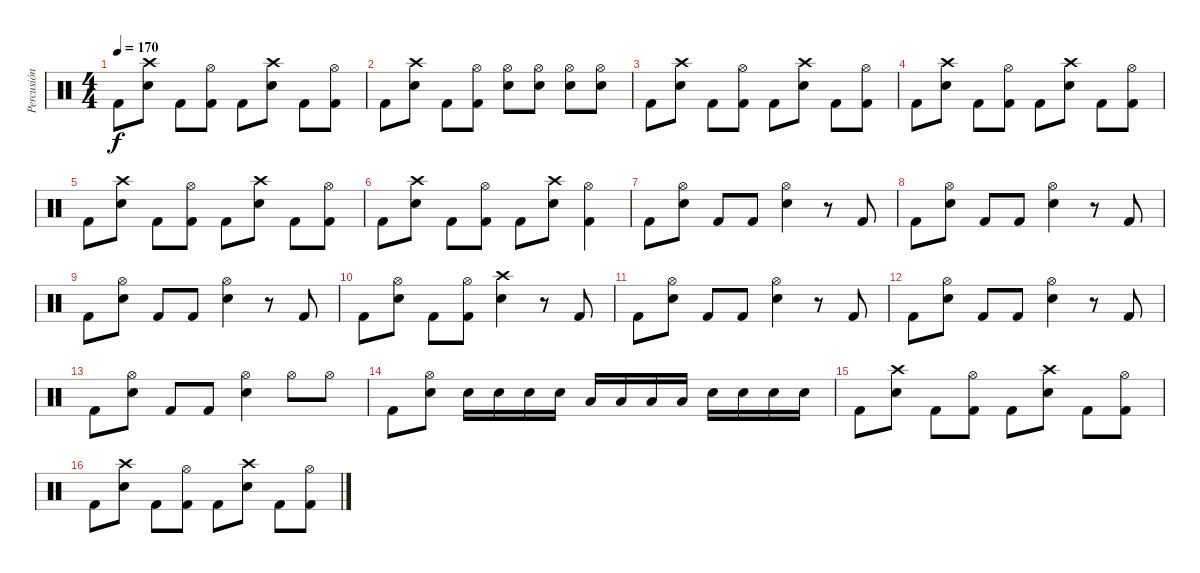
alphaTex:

\track ("Percusión" "Percusión") {instrument percussion}
\staff {score}
\articulation defaults
\ts (4 4)
\tempo 170
\clef neutral
\ks c "Kick (hit) 2".8{dy f}
("Crash high (hit)" "Electric Snare (hit)").8 "Kick (hit) 2".8 ("Hi-Hat (open)" "Kick (hit) 2").8 "Kick (hit) 2".8 ("Crash high (hit)" "Electric Snare (hit)").8 "Kick (hit) 2".8 ("Hi-Hat (open)" "Kick (hit) 2").8 |
"Kick (hit) 2".8 ("Crash high (hit)" "Electric Snare (hit)").8 "Kick (hit) 2".8 ("Hi-Hat (open)" "Kick (hit) 2").8 ("Hi-Hat (open)" "Electric Snare (hit)").8 ("Hi-Hat (open)" "Electric Snare (hit)").8 ("Hi-Hat (open)" "Electric Snare (hit)").8 ("Hi-Hat (open)" "Electric Snare (hit)").8 |
"Kick (hit) 2".8 ("Crash high (hit)" "Electric Snare (hit)").8 "Kick (hit) 2".8 ("Hi-Hat (open)" "Kick (hit) 2").8 "Kick (hit) 2".8 ("Crash high (hit)" "Electric Snare (hit)").8 "Kick (hit) 2".8 ("Hi-Hat (open)" "Kick (hit) 2").8 |
"Kick (hit) 2".8 ("Crash high (hit)" "Electric Snare (hit)").8 "Kick (hit) 2".8 ("Hi-Hat (open)" "Kick (hit) 2").8 "Kick (hit) 2".8 ("Crash high (hit)" "Electric Snare (hit)").8 "Kick (hit) 2".8 ("Hi-Hat (open)" "Kick (hit) 2").8 |
"Kick (hit) 2".8 ("Crash high (hit)" "Electric Snare (hit)").8 "Kick (hit) 2".8 ("Hi-Hat (open)" "Kick (hit) 2").8 "Kick (hit) 2".8 ("Crash high (hit)" "Electric Snare (hit)").8 "Kick (hit) 2".8 ("Hi-Hat (open)" "Kick (hit) 2").8 |
"Kick (hit) 2".8 ("Crash high (hit)" "Electric Snare (hit)").8 "Kick (hit) 2".8 ("Hi-Hat (open)" "Kick (hit) 2").8 "Kick (hit) 2".8 ("Crash high (hit)" "Electric Snare (hit)").8 ("Hi-Hat (open)" "Kick (hit) 2").4 |
"Kick (hit) 2".8 ("Hi-Hat (open)" "Electric Snare (hit)").8 "Kick (hit) 2".8 "Kick (hit) 2".8 ("Hi-Hat (open)" "Electric Snare (hit)").4 r.8 "Kick (hit) 2".8 |
"Kick (hit) 2".8 ("Hi-Hat (open)" "Electric Snare (hit)").8 "Kick (hit) 2".8 "Kick (hit) 2".8 ("Hi-Hat (open)" "Electric Snare (hit)").4 r.8 "Kick (hit) 2".8 |
"Kick (hit) 2".8 ("Hi-Hat (open)" "Electric Snare (hit)").8 "Kick (hit) 2".8 "Kick (hit) 2".8 ("Hi-Hat (open)" "Electric Snare (hit)").4 r.8 "Kick (hit) 2".8 |
"Kick (hit) 2".8 ("Hi-Hat (open)" "Electric Snare (hit)").8 "Kick (hit) 2".8 ("Hi-Hat (open)" "Kick (hit) 2").8 ("Crash high (hit)" "Electric Snare (hit)").4 r.8 "Kick (hit) 2".8 |
"Kick (hit) 2".8 ("Hi-Hat (open)" "Electric Snare (hit)").8 "Kick (hit) 2".8 "Kick (hit) 2".8 ("Hi-Hat (open)" "Electric Snare (hit)").4 r.8 "Kick (hit) 2".8 |
"Kick (hit) 2".8 ("Hi-Hat (open)" "Electric Snare (hit)").8 "Kick (hit) 2".8 "Kick (hit) 2".8 ("Hi-Hat (open)" "Electric Snare (hit)").4 r.8 "Kick (hit) 2".8 |
"Kick (hit) 2".8 ("Hi-Hat (open)" "Electric Snare (hit)").8 "Kick (hit) 2".8 "Kick (hit) 2".8 ("Hi-Hat (open)" "Electric Snare (hit)").4 "Hi-Hat (open)".8 "Hi-Hat (open)".8 |
"Kick (hit) 2".8 ("Hi-Hat (open)" "Electric Snare (hit)").8 "Electric Snare (hit)".16 "Electric Snare (hit)".16 "Electric Snare (hit)".16 "Electric Snare (hit)".16 "Low Tom (hit)".16 "Low Tom (hit)".16 "Low Tom (hit)".16 "Low Tom (hit)".16 "Electric Snare (hit)".16 "Electric Snare (hit)".16 "Electric Snare (hit)".16 "Electric Snare (hit)".16 |
"Kick (hit) 2".8 ("Crash high (hit)" "Electric Snare (hit)").8 "Kick (hit) 2".8 ("Hi-Hat (open)" "Kick (hit) 2").8 "Kick (hit) 2".8 ("Crash high (hit)" "Electric Snare (hit)").8 "Kick (hit) 2".8 ("Hi-Hat (open)" "Kick (hit) 2").8 |
"Kick (hit) 2".8 ("Crash high (hit)" "Electric Snare (hit)").8 "Kick (hit) 2".8 ("Hi-Hat (open)" "Kick (hit) 2").8 "Kick (hit) 2".8 ("Crash high (hit)" "Electric Snare (hit)").8 "Kick (hit) 2".8 ("Hi-Hat (open)" "Kick (hit) 2").8
